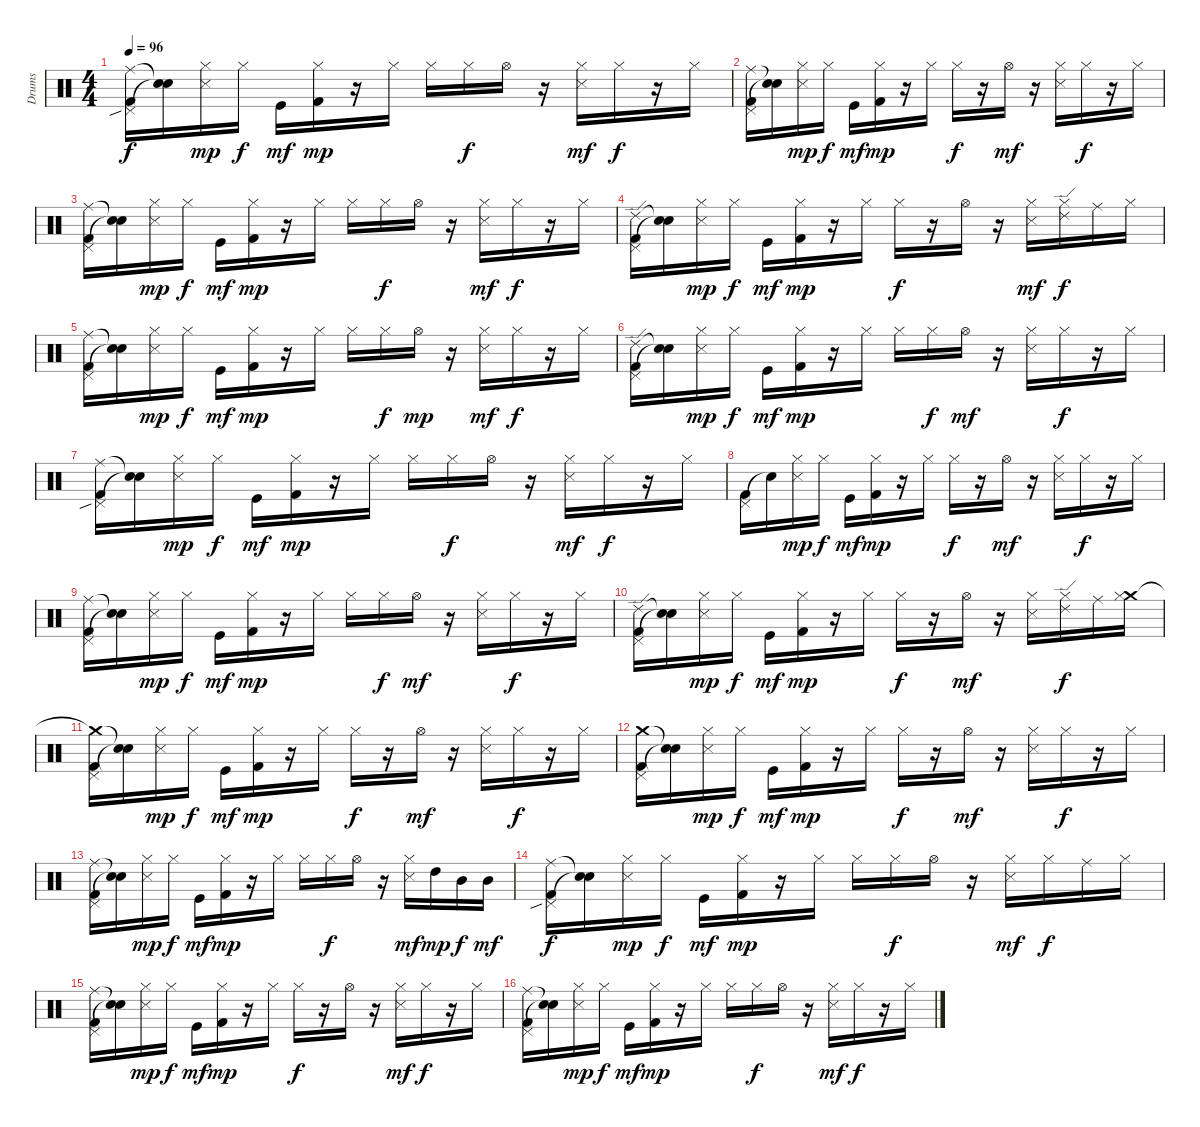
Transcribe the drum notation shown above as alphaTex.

\track ("Drums" "Drums") {instrument percussion}
\staff {score}
\articulation defaults
\ts (4 4)
\tempo 96
\clef neutral
\ks c
("Ride (middle)" "Pedal Hi-Hat (hit)"{sib} "Kick (hit) 2").16{dy f} ("Snare (hit)"{t} "Snare (hit)"{t}).16 ("Hi-Hat (closed)" "Snare (side stick) 3").16{dy mp} "Hi-Hat (closed)".16{dy f} "Kick (hit)".16{dy mf} ("Hi-Hat (closed)" "Kick (hit) 2").16{dy mp} r.16 "Hi-Hat (closed)".16 "Hi-Hat (closed)".16 "Hi-Hat (closed)".16{dy f} "Hi-Hat (open)".16 r.16 ("Hi-Hat (closed)" "Snare (side stick) 3").16{dy mf} "Hi-Hat (closed)".16{dy f} r.16 "Hi-Hat (closed)".16 |
("Ride (middle)" "Pedal Hi-Hat (hit)" "Kick (hit) 2").16 ("Snare (hit)"{t} "Snare (hit)"{t}).16 ("Hi-Hat (closed)" "Snare (side stick) 3").16{dy mp} "Hi-Hat (closed)".16{dy f} "Kick (hit)".16{dy mf} ("Hi-Hat (closed)" "Kick (hit) 2").16{dy mp} r.16 "Hi-Hat (closed)".16 "Hi-Hat (closed)".16{dy f} r.16 "Hi-Hat (open)".16{dy mf} r.16 ("Hi-Hat (closed)" "Snare (side stick) 3").16 "Hi-Hat (closed)".16{dy f} r.16 "Hi-Hat (closed)".16 |
("Ride (middle)" "Pedal Hi-Hat (hit)" "Kick (hit) 2").16 ("Snare (hit)"{t} "Snare (hit)"{t}).16 ("Hi-Hat (closed)" "Snare (side stick) 3").16{dy mp} "Hi-Hat (closed)".16{dy f} "Kick (hit)".16{dy mf} ("Hi-Hat (closed)" "Kick (hit) 2").16{dy mp} r.16 "Hi-Hat (closed)".16 "Hi-Hat (closed)".16 "Hi-Hat (closed)".16{dy f} "Hi-Hat (open)".16 r.16 ("Hi-Hat (closed)" "Snare (side stick) 3").16{dy mf} "Hi-Hat (closed)".16{dy f} r.16 "Hi-Hat (closed)".16 |
("Ride (edge) 2" "Pedal Hi-Hat (hit)" "Kick (hit) 2").16 ("Snare (hit)"{t} "Snare (hit)"{t}).16 ("Hi-Hat (closed)" "Snare (side stick) 3").16{dy mp} "Hi-Hat (closed)".16{dy f} "Kick (hit)".16{dy mf} ("Hi-Hat (closed)" "Kick (hit) 2").16{dy mp} r.16 "Hi-Hat (closed)".16 "Hi-Hat (closed)".16{dy f} r.16 "Hi-Hat (open)".16 r.16 ("Hi-Hat (closed)" "Snare (side stick) 3").16{dy mf} ("Ride (edge) 2" "Hi-Hat (closed)").16{dy f} "Ride (middle)".16 "Hi-Hat (closed)".16 |
("Ride (middle)" "Pedal Hi-Hat (hit)" "Kick (hit) 2").16 ("Snare (hit)"{t} "Snare (hit)"{t}).16 ("Hi-Hat (closed)" "Snare (side stick) 3").16{dy mp} "Hi-Hat (closed)".16{dy f} "Kick (hit)".16{dy mf} ("Hi-Hat (closed)" "Kick (hit) 2").16{dy mp} r.16 "Hi-Hat (closed)".16 "Hi-Hat (closed)".16 "Hi-Hat (closed)".16{dy f} "Hi-Hat (open)".16{dy mp} r.16 ("Hi-Hat (closed)" "Snare (side stick) 3").16{dy mf} "Hi-Hat (closed)".16{dy f} r.16 "Hi-Hat (closed)".16 |
("Ride (edge) 2" "Pedal Hi-Hat (hit)" "Kick (hit) 2").16 ("Snare (hit)"{t} "Snare (hit)"{t}).16 ("Hi-Hat (closed)" "Snare (side stick) 3").16{dy mp} "Hi-Hat (closed)".16{dy f} "Kick (hit)".16{dy mf} ("Hi-Hat (closed)" "Kick (hit) 2").16{dy mp} r.16 "Hi-Hat (closed)".16 "Hi-Hat (closed)".16 "Hi-Hat (closed)".16{dy f} "Hi-Hat (open)".16{dy mf} r.16 ("Hi-Hat (closed)" "Snare (side stick) 3").16 "Hi-Hat (closed)".16{dy f} r.16 "Hi-Hat (closed)".16 |
("Ride (middle)" "Pedal Hi-Hat (hit)"{sib} "Kick (hit) 2").16 ("Snare (hit)"{t} "Snare (hit)"{t}).16 ("Hi-Hat (closed)" "Snare (side stick) 3").16{dy mp} "Hi-Hat (closed)".16{dy f} "Kick (hit)".16{dy mf} ("Hi-Hat (closed)" "Kick (hit) 2").16{dy mp} r.16 "Hi-Hat (closed)".16 "Hi-Hat (closed)".16 "Hi-Hat (closed)".16{dy f} "Hi-Hat (open)".16 r.16 ("Hi-Hat (closed)" "Snare (side stick) 3").16{dy mf} "Hi-Hat (closed)".16{dy f} r.16 "Hi-Hat (closed)".16 |
("Pedal Hi-Hat (hit)" "Kick (hit) 2").16 "Snare (hit)"{t}.16 ("Hi-Hat (closed)" "Snare (side stick) 3").16{dy mp} "Hi-Hat (closed)".16{dy f} "Kick (hit)".16{dy mf} ("Hi-Hat (closed)" "Kick (hit) 2").16{dy mp} r.16 "Hi-Hat (closed)".16 "Hi-Hat (closed)".16{dy f} r.16 "Hi-Hat (open)".16{dy mf} r.16 ("Hi-Hat (closed)" "Snare (side stick) 3").16 "Hi-Hat (closed)".16{dy f} r.16 "Hi-Hat (closed)".16 |
("Ride (middle)" "Pedal Hi-Hat (hit)" "Kick (hit) 2").16 ("Snare (hit)"{t} "Snare (hit)"{t}).16 ("Hi-Hat (closed)" "Snare (side stick) 3").16{dy mp} "Hi-Hat (closed)".16{dy f} "Kick (hit)".16{dy mf} ("Hi-Hat (closed)" "Kick (hit) 2").16{dy mp} r.16 "Hi-Hat (closed)".16 "Hi-Hat (closed)".16 "Hi-Hat (closed)".16{dy f} "Hi-Hat (open)".16{dy mf} r.16 ("Hi-Hat (closed)" "Snare (side stick) 3").16 "Hi-Hat (closed)".16{dy f} r.16 "Hi-Hat (closed)".16 |
("Ride (edge) 2" "Pedal Hi-Hat (hit)" "Kick (hit) 2").16 ("Snare (hit)"{t} "Snare (hit)"{t}).16 ("Hi-Hat (closed)" "Snare (side stick) 3").16{dy mp} "Hi-Hat (closed)".16{dy f} "Kick (hit)".16{dy mf} ("Hi-Hat (closed)" "Kick (hit) 2").16{dy mp} r.16 "Hi-Hat (closed)".16 "Hi-Hat (closed)".16{dy f} r.16 "Hi-Hat (open)".16{dy mf} r.16 ("Hi-Hat (closed)" "Snare (side stick) 3").16 ("Ride (edge) 2" "Hi-Hat (closed)").16{dy f} "Ride (middle)".16 ("Crash medium (hit)" "Hi-Hat (closed)").16 |
("Crash medium (hit)"{t} "Pedal Hi-Hat (hit)" "Kick (hit) 2").16 ("Snare (hit)"{t} "Snare (hit)"{t}).16 ("Hi-Hat (closed)" "Snare (side stick) 3").16{dy mp} "Hi-Hat (closed)".16{dy f} "Kick (hit)".16{dy mf} ("Hi-Hat (closed)" "Kick (hit) 2").16{dy mp} r.16 "Hi-Hat (closed)".16 "Hi-Hat (closed)".16{dy f} r.16 "Hi-Hat (open)".16{dy mf} r.16 ("Hi-Hat (closed)" "Snare (side stick) 3").16 "Hi-Hat (closed)".16{dy f} r.16 "Hi-Hat (closed)".16 |
("Crash medium (hit)" "Pedal Hi-Hat (hit)" "Kick (hit) 2").16 ("Snare (hit)"{t} "Snare (hit)"{t}).16 ("Hi-Hat (closed)" "Snare (side stick) 3").16{dy mp} "Hi-Hat (closed)".16{dy f} "Kick (hit)".16{dy mf} ("Hi-Hat (closed)" "Kick (hit) 2").16{dy mp} r.16 "Hi-Hat (closed)".16 "Hi-Hat (closed)".16{dy f} r.16 "Hi-Hat (open)".16{dy mf} r.16 ("Hi-Hat (closed)" "Snare (side stick) 3").16 "Hi-Hat (closed)".16{dy f} r.16 "Hi-Hat (closed)".16 |
("Ride (middle)" "Pedal Hi-Hat (hit)" "Kick (hit) 2").16 ("Snare (hit)"{t} "Snare (hit)"{t}).16 ("Hi-Hat (closed)" "Snare (side stick) 3").16{dy mp} "Hi-Hat (closed)".16{dy f} "Kick (hit)".16{dy mf} ("Hi-Hat (closed)" "Kick (hit) 2").16{dy mp} r.16 "Hi-Hat (closed)".16 "Hi-Hat (closed)".16 "Hi-Hat (closed)".16{dy f} "Hi-Hat (open)".16 r.16 ("Hi-Hat (closed)" "Snare (side stick) 3").16{dy mf} "High Tom (hit)".16{dy mp} "Mid Tom (hit)".16{dy f} "Mid Tom (hit)".16{dy mf} |
("Ride (middle)" "Pedal Hi-Hat (hit)"{sib} "Kick (hit) 2").16{dy f} ("Snare (hit)"{t} "Snare (hit)"{t}).16 ("Hi-Hat (closed)" "Snare (side stick) 3").16{dy mp} "Hi-Hat (closed)".16{dy f} "Kick (hit)".16{dy mf} ("Hi-Hat (closed)" "Kick (hit) 2").16{dy mp} r.16 "Hi-Hat (closed)".16 "Hi-Hat (closed)".16 "Hi-Hat (closed)".16{dy f} "Hi-Hat (open)".16 r.16 ("Hi-Hat (closed)" "Snare (side stick) 3").16{dy mf} "Hi-Hat (closed)".16{dy f} "Ride (middle)".16 "Hi-Hat (closed)".16 |
("Ride (middle)" "Pedal Hi-Hat (hit)" "Kick (hit) 2").16 ("Snare (hit)"{t} "Snare (hit)"{t}).16 ("Hi-Hat (closed)" "Snare (side stick) 3").16{dy mp} "Hi-Hat (closed)".16{dy f} "Kick (hit)".16{dy mf} ("Hi-Hat (closed)" "Kick (hit) 2").16{dy mp} r.16 "Hi-Hat (closed)".16 "Hi-Hat (closed)".16{dy f} r.16 "Hi-Hat (open)".16 r.16 ("Hi-Hat (closed)" "Snare (side stick) 3").16{dy mf} "Hi-Hat (closed)".16{dy f} r.16 "Hi-Hat (closed)".16 |
("Ride (middle)" "Pedal Hi-Hat (hit)" "Kick (hit) 2").16 ("Snare (hit)"{t} "Snare (hit)"{t}).16 ("Hi-Hat (closed)" "Snare (side stick) 3").16{dy mp} "Hi-Hat (closed)".16{dy f} "Kick (hit)".16{dy mf} ("Hi-Hat (closed)" "Kick (hit) 2").16{dy mp} r.16 "Hi-Hat (closed)".16 "Hi-Hat (closed)".16 "Hi-Hat (closed)".16{dy f} "Hi-Hat (open)".16 r.16 ("Hi-Hat (closed)" "Snare (side stick) 3").16{dy mf} "Hi-Hat (closed)".16{dy f} r.16 "Hi-Hat (closed)".16
